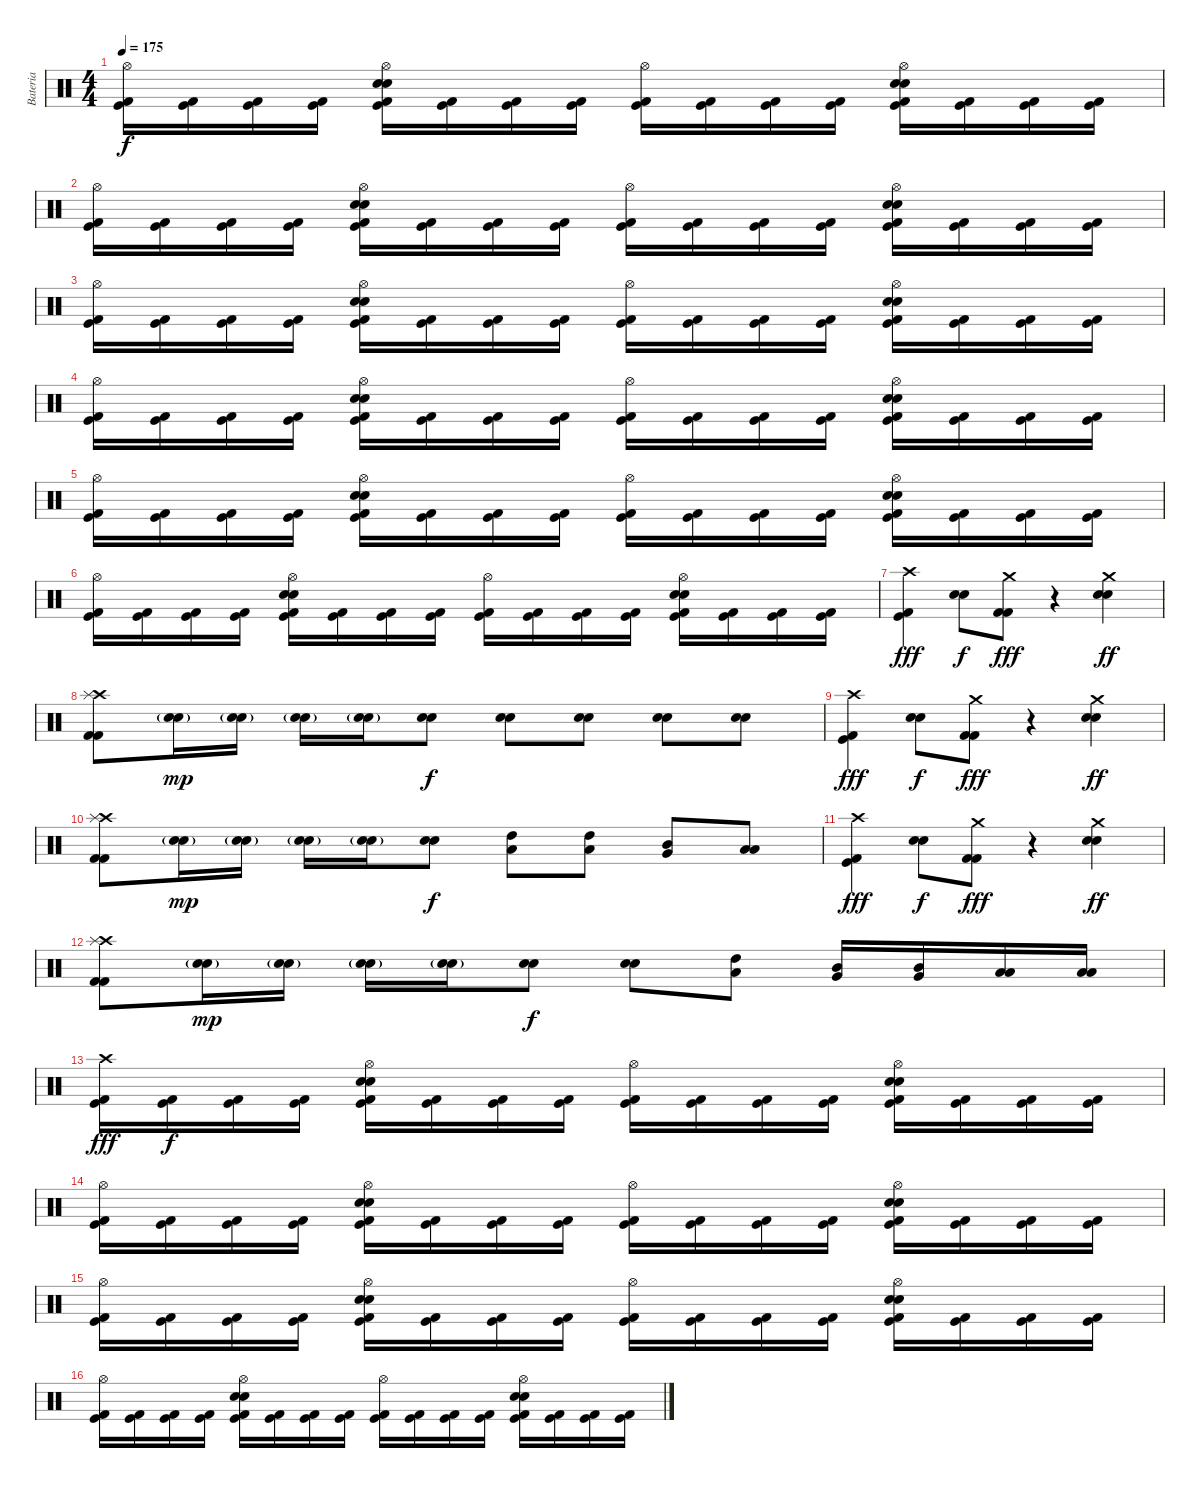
\track ("Bateria" "Bateria") {instrument percussion}
\staff {score}
\articulation defaults
\ts (4 4)
\tempo 175
\clef neutral
\ks c
("Hi-Hat (open)" "Kick (hit) 2" "Kick (hit)").16{dy f} ("Kick (hit) 2" "Kick (hit)").16 ("Kick (hit) 2" "Kick (hit)").16 ("Kick (hit) 2" "Kick (hit)").16 ("Hi-Hat (open)" "Electric Snare (hit)" "Snare (hit) 2" "Kick (hit) 2" "Kick (hit)").16 ("Kick (hit) 2" "Kick (hit)").16 ("Kick (hit) 2" "Kick (hit)").16 ("Kick (hit) 2" "Kick (hit)").16 ("Hi-Hat (open)" "Kick (hit) 2" "Kick (hit)").16 ("Kick (hit) 2" "Kick (hit)").16 ("Kick (hit) 2" "Kick (hit)").16 ("Kick (hit) 2" "Kick (hit)").16 ("Hi-Hat (open)" "Electric Snare (hit)" "Snare (hit) 2" "Kick (hit) 2" "Kick (hit)").16 ("Kick (hit) 2" "Kick (hit)").16 ("Kick (hit) 2" "Kick (hit)").16 ("Kick (hit) 2" "Kick (hit)").16 |
("Hi-Hat (open)" "Kick (hit) 2" "Kick (hit)").16 ("Kick (hit) 2" "Kick (hit)").16 ("Kick (hit) 2" "Kick (hit)").16 ("Kick (hit) 2" "Kick (hit)").16 ("Hi-Hat (open)" "Electric Snare (hit)" "Snare (hit) 2" "Kick (hit) 2" "Kick (hit)").16 ("Kick (hit) 2" "Kick (hit)").16 ("Kick (hit) 2" "Kick (hit)").16 ("Kick (hit) 2" "Kick (hit)").16 ("Hi-Hat (open)" "Kick (hit) 2" "Kick (hit)").16 ("Kick (hit) 2" "Kick (hit)").16 ("Kick (hit) 2" "Kick (hit)").16 ("Kick (hit) 2" "Kick (hit)").16 ("Hi-Hat (open)" "Electric Snare (hit)" "Snare (hit) 2" "Kick (hit) 2" "Kick (hit)").16 ("Kick (hit) 2" "Kick (hit)").16 ("Kick (hit) 2" "Kick (hit)").16 ("Kick (hit) 2" "Kick (hit)").16 |
("Hi-Hat (open)" "Kick (hit) 2" "Kick (hit)").16 ("Kick (hit) 2" "Kick (hit)").16 ("Kick (hit) 2" "Kick (hit)").16 ("Kick (hit) 2" "Kick (hit)").16 ("Hi-Hat (open)" "Electric Snare (hit)" "Snare (hit) 2" "Kick (hit) 2" "Kick (hit)").16 ("Kick (hit) 2" "Kick (hit)").16 ("Kick (hit) 2" "Kick (hit)").16 ("Kick (hit) 2" "Kick (hit)").16 ("Hi-Hat (open)" "Kick (hit) 2" "Kick (hit)").16 ("Kick (hit) 2" "Kick (hit)").16 ("Kick (hit) 2" "Kick (hit)").16 ("Kick (hit) 2" "Kick (hit)").16 ("Hi-Hat (open)" "Electric Snare (hit)" "Snare (hit) 2" "Kick (hit) 2" "Kick (hit)").16 ("Kick (hit) 2" "Kick (hit)").16 ("Kick (hit) 2" "Kick (hit)").16 ("Kick (hit) 2" "Kick (hit)").16 |
("Hi-Hat (open)" "Kick (hit) 2" "Kick (hit)").16 ("Kick (hit) 2" "Kick (hit)").16 ("Kick (hit) 2" "Kick (hit)").16 ("Kick (hit) 2" "Kick (hit)").16 ("Hi-Hat (open)" "Electric Snare (hit)" "Snare (hit) 2" "Kick (hit) 2" "Kick (hit)").16 ("Kick (hit) 2" "Kick (hit)").16 ("Kick (hit) 2" "Kick (hit)").16 ("Kick (hit) 2" "Kick (hit)").16 ("Hi-Hat (open)" "Kick (hit) 2" "Kick (hit)").16 ("Kick (hit) 2" "Kick (hit)").16 ("Kick (hit) 2" "Kick (hit)").16 ("Kick (hit) 2" "Kick (hit)").16 ("Hi-Hat (open)" "Electric Snare (hit)" "Snare (hit) 2" "Kick (hit) 2" "Kick (hit)").16 ("Kick (hit) 2" "Kick (hit)").16 ("Kick (hit) 2" "Kick (hit)").16 ("Kick (hit) 2" "Kick (hit)").16 |
("Hi-Hat (open)" "Kick (hit) 2" "Kick (hit)").16 ("Kick (hit) 2" "Kick (hit)").16 ("Kick (hit) 2" "Kick (hit)").16 ("Kick (hit) 2" "Kick (hit)").16 ("Hi-Hat (open)" "Electric Snare (hit)" "Snare (hit) 2" "Kick (hit) 2" "Kick (hit)").16 ("Kick (hit) 2" "Kick (hit)").16 ("Kick (hit) 2" "Kick (hit)").16 ("Kick (hit) 2" "Kick (hit)").16 ("Hi-Hat (open)" "Kick (hit) 2" "Kick (hit)").16 ("Kick (hit) 2" "Kick (hit)").16 ("Kick (hit) 2" "Kick (hit)").16 ("Kick (hit) 2" "Kick (hit)").16 ("Hi-Hat (open)" "Electric Snare (hit)" "Snare (hit) 2" "Kick (hit) 2" "Kick (hit)").16 ("Kick (hit) 2" "Kick (hit)").16 ("Kick (hit) 2" "Kick (hit)").16 ("Kick (hit) 2" "Kick (hit)").16 |
("Hi-Hat (open)" "Kick (hit) 2" "Kick (hit)").16 ("Kick (hit) 2" "Kick (hit)").16 ("Kick (hit) 2" "Kick (hit)").16 ("Kick (hit) 2" "Kick (hit)").16 ("Hi-Hat (open)" "Electric Snare (hit)" "Snare (hit) 2" "Kick (hit) 2" "Kick (hit)").16 ("Kick (hit) 2" "Kick (hit)").16 ("Kick (hit) 2" "Kick (hit)").16 ("Kick (hit) 2" "Kick (hit)").16 ("Hi-Hat (open)" "Kick (hit) 2" "Kick (hit)").16 ("Kick (hit) 2" "Kick (hit)").16 ("Kick (hit) 2" "Kick (hit)").16 ("Kick (hit) 2" "Kick (hit)").16 ("Hi-Hat (open)" "Electric Snare (hit)" "Snare (hit) 2" "Kick (hit) 2" "Kick (hit)").16 ("Kick (hit) 2" "Kick (hit)").16 ("Kick (hit) 2" "Kick (hit)").16 ("Kick (hit) 2" "Kick (hit)").16 |
("Crash high (hit)" "Kick (hit) 2" "Kick (hit)").4{dy fff} ("Electric Snare (hit)" "Snare (hit) 2").8{dy f} ("Crash medium (hit)" "Kick (hit) 2" "Kick (hit) 2").8{dy fff} r.4 ("Crash medium (hit)" "Electric Snare (hit)" "Snare (hit) 2").4{dy ff} |
("Crash high (hit)" "Splash (hit)" "Kick (hit) 2" "Kick (hit) 2").8 ("Electric Snare (hit)"{g} "Snare (hit) 2"{g}).16{dy mp} ("Electric Snare (hit)"{g} "Snare (hit) 2"{g}).16 ("Electric Snare (hit)"{g} "Snare (hit) 2"{g}).16 ("Electric Snare (hit)"{g} "Snare (hit) 2"{g}).16 ("Electric Snare (hit)" "Snare (hit) 2").8{dy f} ("Electric Snare (hit)" "Snare (hit) 2").8 ("Electric Snare (hit)" "Snare (hit) 2").8 ("Electric Snare (hit)" "Snare (hit) 2").8 ("Electric Snare (hit)" "Snare (hit) 2").8 |
("Crash high (hit)" "Kick (hit) 2" "Kick (hit)").4{dy fff} ("Electric Snare (hit)" "Snare (hit) 2").8{dy f} ("Crash medium (hit)" "Kick (hit) 2" "Kick (hit) 2").8{dy fff} r.4 ("Crash medium (hit)" "Electric Snare (hit)" "Snare (hit) 2").4{dy ff} |
("Crash high (hit)" "Splash (hit)" "Kick (hit) 2" "Kick (hit) 2").8 ("Electric Snare (hit)"{g} "Snare (hit) 2"{g}).16{dy mp} ("Electric Snare (hit)"{g} "Snare (hit) 2"{g}).16 ("Electric Snare (hit)"{g} "Snare (hit) 2"{g}).16 ("Electric Snare (hit)"{g} "Snare (hit) 2"{g}).16 ("Electric Snare (hit)" "Snare (hit) 2").8{dy f} ("High Tom (hit)" "Low Tom (hit)").8 ("High Tom (hit)" "Low Tom (hit)").8 ("Mid Tom (hit)" "Very Low Tom (hit)").8 ("Low Tom (hit)" "Low Floor Tom (hit)").8 |
("Crash high (hit)" "Kick (hit) 2" "Kick (hit)").4{dy fff} ("Electric Snare (hit)" "Snare (hit) 2").8{dy f} ("Crash medium (hit)" "Kick (hit) 2" "Kick (hit) 2").8{dy fff} r.4 ("Crash medium (hit)" "Electric Snare (hit)" "Snare (hit) 2").4{dy ff} |
("Crash high (hit)" "Splash (hit)" "Kick (hit) 2" "Kick (hit) 2").8 ("Electric Snare (hit)"{g} "Snare (hit) 2"{g}).16{dy mp} ("Electric Snare (hit)"{g} "Snare (hit) 2"{g}).16 ("Electric Snare (hit)"{g} "Snare (hit) 2"{g}).16 ("Electric Snare (hit)"{g} "Snare (hit) 2"{g}).16 ("Electric Snare (hit)" "Snare (hit) 2").8{dy f} ("Electric Snare (hit)" "Snare (hit) 2").8 ("High Tom (hit)" "Low Tom (hit)").8 ("Mid Tom (hit)" "Very Low Tom (hit)").16 ("Mid Tom (hit)" "Very Low Tom (hit)").16 ("Low Tom (hit)" "Low Floor Tom (hit)").16 ("Low Tom (hit)" "Low Floor Tom (hit)").16 |
("Crash high (hit)" "Kick (hit) 2" "Kick (hit)").16{dy fff} ("Kick (hit) 2" "Kick (hit)").16{dy f} ("Kick (hit) 2" "Kick (hit)").16 ("Kick (hit) 2" "Kick (hit)").16 ("Hi-Hat (open)" "Electric Snare (hit)" "Snare (hit) 2" "Kick (hit) 2" "Kick (hit)").16 ("Kick (hit) 2" "Kick (hit)").16 ("Kick (hit) 2" "Kick (hit)").16 ("Kick (hit) 2" "Kick (hit)").16 ("Hi-Hat (open)" "Kick (hit) 2" "Kick (hit)").16 ("Kick (hit) 2" "Kick (hit)").16 ("Kick (hit) 2" "Kick (hit)").16 ("Kick (hit) 2" "Kick (hit)").16 ("Hi-Hat (open)" "Electric Snare (hit)" "Snare (hit) 2" "Kick (hit) 2" "Kick (hit)").16 ("Kick (hit) 2" "Kick (hit)").16 ("Kick (hit) 2" "Kick (hit)").16 ("Kick (hit) 2" "Kick (hit)").16 |
("Hi-Hat (open)" "Kick (hit) 2" "Kick (hit)").16 ("Kick (hit) 2" "Kick (hit)").16 ("Kick (hit) 2" "Kick (hit)").16 ("Kick (hit) 2" "Kick (hit)").16 ("Hi-Hat (open)" "Electric Snare (hit)" "Snare (hit) 2" "Kick (hit) 2" "Kick (hit)").16 ("Kick (hit) 2" "Kick (hit)").16 ("Kick (hit) 2" "Kick (hit)").16 ("Kick (hit) 2" "Kick (hit)").16 ("Hi-Hat (open)" "Kick (hit) 2" "Kick (hit)").16 ("Kick (hit) 2" "Kick (hit)").16 ("Kick (hit) 2" "Kick (hit)").16 ("Kick (hit) 2" "Kick (hit)").16 ("Hi-Hat (open)" "Electric Snare (hit)" "Snare (hit) 2" "Kick (hit) 2" "Kick (hit)").16 ("Kick (hit) 2" "Kick (hit)").16 ("Kick (hit) 2" "Kick (hit)").16 ("Kick (hit) 2" "Kick (hit)").16 |
("Hi-Hat (open)" "Kick (hit) 2" "Kick (hit)").16 ("Kick (hit) 2" "Kick (hit)").16 ("Kick (hit) 2" "Kick (hit)").16 ("Kick (hit) 2" "Kick (hit)").16 ("Hi-Hat (open)" "Electric Snare (hit)" "Snare (hit) 2" "Kick (hit) 2" "Kick (hit)").16 ("Kick (hit) 2" "Kick (hit)").16 ("Kick (hit) 2" "Kick (hit)").16 ("Kick (hit) 2" "Kick (hit)").16 ("Hi-Hat (open)" "Kick (hit) 2" "Kick (hit)").16 ("Kick (hit) 2" "Kick (hit)").16 ("Kick (hit) 2" "Kick (hit)").16 ("Kick (hit) 2" "Kick (hit)").16 ("Hi-Hat (open)" "Electric Snare (hit)" "Snare (hit) 2" "Kick (hit) 2" "Kick (hit)").16 ("Kick (hit) 2" "Kick (hit)").16 ("Kick (hit) 2" "Kick (hit)").16 ("Kick (hit) 2" "Kick (hit)").16 |
("Hi-Hat (open)" "Kick (hit) 2" "Kick (hit)").16 ("Kick (hit) 2" "Kick (hit)").16 ("Kick (hit) 2" "Kick (hit)").16 ("Kick (hit) 2" "Kick (hit)").16 ("Hi-Hat (open)" "Electric Snare (hit)" "Snare (hit) 2" "Kick (hit) 2" "Kick (hit)").16 ("Kick (hit) 2" "Kick (hit)").16 ("Kick (hit) 2" "Kick (hit)").16 ("Kick (hit) 2" "Kick (hit)").16 ("Hi-Hat (open)" "Kick (hit) 2" "Kick (hit)").16 ("Kick (hit) 2" "Kick (hit)").16 ("Kick (hit) 2" "Kick (hit)").16 ("Kick (hit) 2" "Kick (hit)").16 ("Hi-Hat (open)" "Electric Snare (hit)" "Snare (hit) 2" "Kick (hit) 2" "Kick (hit)").16 ("Kick (hit) 2" "Kick (hit)").16 ("Kick (hit) 2" "Kick (hit)").16 ("Kick (hit) 2" "Kick (hit)").16
